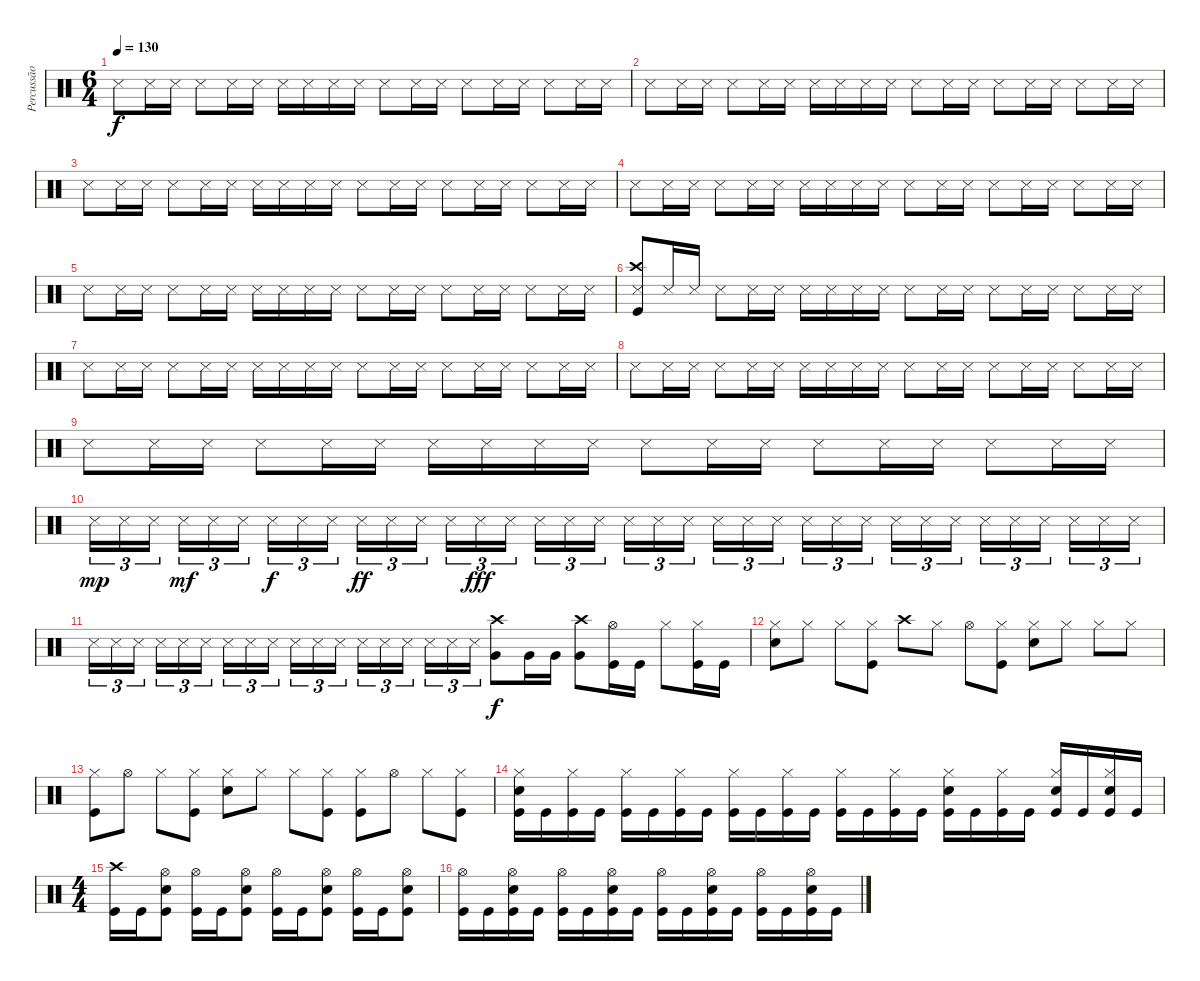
\track ("Percussão" "Percussão") {instrument percussion}
\staff {score}
\articulation defaults
\ts (6 4)
\tempo 130
\clef neutral
\ks c "Snare (side stick) 3".8{dy f} "Snare (side stick) 3".16 "Snare (side stick) 3".16 "Snare (side stick) 3".8 "Snare (side stick) 3".16 "Snare (side stick) 3".16 "Snare (side stick) 3".16 "Snare (side stick) 3".16 "Snare (side stick) 3".16 "Snare (side stick) 3".16 "Snare (side stick) 3".8 "Snare (side stick) 3".16 "Snare (side stick) 3".16 "Snare (side stick) 3".8 "Snare (side stick) 3".16 "Snare (side stick) 3".16 "Snare (side stick) 3".8 "Snare (side stick) 3".16 "Snare (side stick) 3".16
|
"Snare (side stick) 3".8 "Snare (side stick) 3".16 "Snare (side stick) 3".16 "Snare (side stick) 3".8 "Snare (side stick) 3".16 "Snare (side stick) 3".16 "Snare (side stick) 3".16 "Snare (side stick) 3".16 "Snare (side stick) 3".16 "Snare (side stick) 3".16 "Snare (side stick) 3".8 "Snare (side stick) 3".16 "Snare (side stick) 3".16 "Snare (side stick) 3".8 "Snare (side stick) 3".16 "Snare (side stick) 3".16 "Snare (side stick) 3".8 "Snare (side stick) 3".16 "Snare (side stick) 3".16 |
"Snare (side stick) 3".8 "Snare (side stick) 3".16 "Snare (side stick) 3".16 "Snare (side stick) 3".8 "Snare (side stick) 3".16 "Snare (side stick) 3".16 "Snare (side stick) 3".16 "Snare (side stick) 3".16 "Snare (side stick) 3".16 "Snare (side stick) 3".16 "Snare (side stick) 3".8 "Snare (side stick) 3".16 "Snare (side stick) 3".16 "Snare (side stick) 3".8 "Snare (side stick) 3".16 "Snare (side stick) 3".16 "Snare (side stick) 3".8 "Snare (side stick) 3".16 "Snare (side stick) 3".16 |
"Snare (side stick) 3".8 "Snare (side stick) 3".16 "Snare (side stick) 3".16 "Snare (side stick) 3".8 "Snare (side stick) 3".16 "Snare (side stick) 3".16 "Snare (side stick) 3".16 "Snare (side stick) 3".16 "Snare (side stick) 3".16 "Snare (side stick) 3".16 "Snare (side stick) 3".8 "Snare (side stick) 3".16 "Snare (side stick) 3".16 "Snare (side stick) 3".8 "Snare (side stick) 3".16 "Snare (side stick) 3".16 "Snare (side stick) 3".8 "Snare (side stick) 3".16 "Snare (side stick) 3".16 |
"Snare (side stick) 3".8 "Snare (side stick) 3".16 "Snare (side stick) 3".16 "Snare (side stick) 3".8 "Snare (side stick) 3".16 "Snare (side stick) 3".16 "Snare (side stick) 3".16 "Snare (side stick) 3".16 "Snare (side stick) 3".16 "Snare (side stick) 3".16 "Snare (side stick) 3".8 "Snare (side stick) 3".16 "Snare (side stick) 3".16 "Snare (side stick) 3".8 "Snare (side stick) 3".16 "Snare (side stick) 3".16 "Snare (side stick) 3".8 "Snare (side stick) 3".16 "Snare (side stick) 3".16 |
("Crash high (hit)" "Snare (side stick) 3" "Kick (hit)").8 "Snare (side stick) 3".16 "Snare (side stick) 3".16 "Snare (side stick) 3".8 "Snare (side stick) 3".16 "Snare (side stick) 3".16 "Snare (side stick) 3".16 "Snare (side stick) 3".16 "Snare (side stick) 3".16 "Snare (side stick) 3".16 "Snare (side stick) 3".8 "Snare (side stick) 3".16 "Snare (side stick) 3".16 "Snare (side stick) 3".8 "Snare (side stick) 3".16 "Snare (side stick) 3".16 "Snare (side stick) 3".8 "Snare (side stick) 3".16 "Snare (side stick) 3".16 |
"Snare (side stick) 3".8 "Snare (side stick) 3".16 "Snare (side stick) 3".16 "Snare (side stick) 3".8 "Snare (side stick) 3".16 "Snare (side stick) 3".16 "Snare (side stick) 3".16 "Snare (side stick) 3".16 "Snare (side stick) 3".16 "Snare (side stick) 3".16 "Snare (side stick) 3".8 "Snare (side stick) 3".16 "Snare (side stick) 3".16 "Snare (side stick) 3".8 "Snare (side stick) 3".16 "Snare (side stick) 3".16 "Snare (side stick) 3".8 "Snare (side stick) 3".16 "Snare (side stick) 3".16 |
"Snare (side stick) 3".8 "Snare (side stick) 3".16 "Snare (side stick) 3".16 "Snare (side stick) 3".8 "Snare (side stick) 3".16 "Snare (side stick) 3".16 "Snare (side stick) 3".16 "Snare (side stick) 3".16 "Snare (side stick) 3".16 "Snare (side stick) 3".16 "Snare (side stick) 3".8 "Snare (side stick) 3".16 "Snare (side stick) 3".16 "Snare (side stick) 3".8 "Snare (side stick) 3".16 "Snare (side stick) 3".16 "Snare (side stick) 3".8 "Snare (side stick) 3".16 "Snare (side stick) 3".16 |
"Snare (side stick) 3".8 "Snare (side stick) 3".16 "Snare (side stick) 3".16 "Snare (side stick) 3".8 "Snare (side stick) 3".16 "Snare (side stick) 3".16 "Snare (side stick) 3".16 "Snare (side stick) 3".16 "Snare (side stick) 3".16 "Snare (side stick) 3".16 "Snare (side stick) 3".8 "Snare (side stick) 3".16 "Snare (side stick) 3".16 "Snare (side stick) 3".8 "Snare (side stick) 3".16 "Snare (side stick) 3".16 "Snare (side stick) 3".8 "Snare (side stick) 3".16 "Snare (side stick) 3".16 |
"Snare (side stick) 3".16{tu (3 2) dy mp} "Snare (side stick) 3".16{tu (3 2)} "Snare (side stick) 3".16{tu (3 2)} "Snare (side stick) 3".16{tu (3 2) dy mf} "Snare (side stick) 3".16{tu (3 2)} "Snare (side stick) 3".16{tu (3 2)} "Snare (side stick) 3".16{tu (3 2) dy f} "Snare (side stick) 3".16{tu (3 2)} "Snare (side stick) 3".16{tu (3 2)} "Snare (side stick) 3".16{tu (3 2) dy ff} "Snare (side stick) 3".16{tu (3 2)} "Snare (side stick) 3".16{tu (3 2)} "Snare (side stick) 3".16{tu (3 2)} "Snare (side stick) 3".16{tu (3 2) dy fff} "Snare (side stick) 3".16{tu (3 2)} "Snare (side stick) 3".16{tu (3 2)} "Snare (side stick) 3".16{tu (3 2)} "Snare (side stick) 3".16{tu (3 2)} "Snare (side stick) 3".16{tu (3 2)} "Snare (side stick) 3".16{tu (3 2)} "Snare (side stick) 3".16{tu (3 2)} "Snare (side stick) 3".16{tu (3 2)} "Snare (side stick) 3".16{tu (3 2)} "Snare (side stick) 3".16{tu (3 2)} "Snare (side stick) 3".16{tu (3 2)} "Snare (side stick) 3".16{tu (3 2)} "Snare (side stick) 3".16{tu (3 2)} "Snare (side stick) 3".16{tu (3 2)} "Snare (side stick) 3".16{tu (3 2)} "Snare (side stick) 3".16{tu (3 2)} "Snare (side stick) 3".16{tu (3 2)} "Snare (side stick) 3".16{tu (3 2)} "Snare (side stick) 3".16{tu (3 2)} "Snare (side stick) 3".16{tu (3 2)} "Snare (side stick) 3".16{tu (3 2)} "Snare (side stick) 3".16{tu (3 2)} |
"Snare (side stick) 3".16{tu (3 2)} "Snare (side stick) 3".16{tu (3 2)} "Snare (side stick) 3".16{tu (3 2)} "Snare (side stick) 3".16{tu (3 2)} "Snare (side stick) 3".16{tu (3 2)} "Snare (side stick) 3".16{tu (3 2)} "Snare (side stick) 3".16{tu (3 2)} "Snare (side stick) 3".16{tu (3 2)} "Snare (side stick) 3".16{tu (3 2)} "Snare (side stick) 3".16{tu (3 2)} "Snare (side stick) 3".16{tu (3 2)} "Snare (side stick) 3".16{tu (3 2)} "Snare (side stick) 3".16{tu (3 2)} "Snare (side stick) 3".16{tu (3 2)} "Snare (side stick) 3".16{tu (3 2)} "Snare (side stick) 3".16{tu (3 2)} "Snare (side stick) 3".16{tu (3 2)} "Snare (side stick) 3".16{tu (3 2)} ("Crash high (hit)" "Very Low Tom (hit)").8{dy f} "Very Low Tom (hit)".16 "Very Low Tom (hit)".16 ("Crash high (hit)" "Very Low Tom (hit)").8 ("Hi-Hat (open)" "Kick (hit)").16 "Kick (hit)".16 "Hi-Hat (closed)".8 ("Hi-Hat (closed)" "Kick (hit)").16 "Kick (hit)".16 |
("Hi-Hat (closed)" "Snare (hit) 2").8 "Hi-Hat (closed)".8 "Hi-Hat (closed)".8 ("Hi-Hat (closed)" "Kick (hit)").8 "Crash high (hit)".8 "Hi-Hat (closed)".8 "Hi-Hat (open)".8 ("Hi-Hat (closed)" "Kick (hit)").8 ("Hi-Hat (closed)" "Snare (hit) 2").8 "Hi-Hat (closed)".8 "Hi-Hat (closed)".8 "Hi-Hat (closed)".8 |
("Hi-Hat (closed)" "Kick (hit)").8 "Hi-Hat (open)".8 "Hi-Hat (closed)".8 ("Hi-Hat (closed)" "Kick (hit)").8 ("Hi-Hat (closed)" "Snare (hit) 2").8 "Hi-Hat (closed)".8 "Hi-Hat (closed)".8 ("Hi-Hat (closed)" "Kick (hit)").8 ("Hi-Hat (closed)" "Kick (hit)").8 "Hi-Hat (open)".8 "Hi-Hat (closed)".8 ("Hi-Hat (closed)" "Kick (hit)").8 |
("Hi-Hat (closed)" "Snare (hit) 2" "Kick (hit)").16 "Kick (hit)".16 ("Hi-Hat (closed)" "Kick (hit)").16 "Kick (hit)".16 ("Hi-Hat (closed)" "Kick (hit)").16 "Kick (hit)".16 ("Hi-Hat (closed)" "Kick (hit)").16 "Kick (hit)".16 ("Hi-Hat (closed)" "Kick (hit)").16 "Kick (hit)".16 ("Hi-Hat (closed)" "Kick (hit)").16 "Kick (hit)".16 ("Hi-Hat (closed)" "Kick (hit)").16 "Kick (hit)".16 ("Hi-Hat (closed)" "Kick (hit)").16 "Kick (hit)".16 ("Hi-Hat (closed)" "Snare (hit) 2" "Kick (hit)").16 "Kick (hit)".16 ("Hi-Hat (closed)" "Kick (hit)").16 "Kick (hit)".16 ("Hi-Hat (closed)" "Snare (hit) 2" "Kick (hit)").16 "Kick (hit)".16 ("Hi-Hat (closed)" "Snare (hit) 2" "Kick (hit)").16 "Kick (hit)".16 |
\ts (4 4)
("Crash high (hit)" "Kick (hit)").16 "Kick (hit)".16 ("Hi-Hat (open)" "Snare (hit) 2" "Kick (hit)").8 ("Hi-Hat (open)" "Kick (hit)").16 "Kick (hit)".16 ("Hi-Hat (open)" "Snare (hit) 2" "Kick (hit)").8 ("Hi-Hat (open)" "Kick (hit)").16 "Kick (hit)".16 ("Hi-Hat (open)" "Snare (hit) 2" "Kick (hit)").8 ("Hi-Hat (open)" "Kick (hit)").16 "Kick (hit)".16 ("Hi-Hat (open)" "Snare (hit) 2" "Kick (hit)").8 |
("Hi-Hat (open)" "Kick (hit)").16 "Kick (hit)".16 ("Hi-Hat (open)" "Snare (hit) 2" "Kick (hit)").16 "Kick (hit)".16 ("Hi-Hat (open)" "Kick (hit)").16 "Kick (hit)".16 ("Hi-Hat (open)" "Snare (hit) 2" "Kick (hit)").16 "Kick (hit)".16 ("Hi-Hat (open)" "Kick (hit)").16 "Kick (hit)".16 ("Hi-Hat (open)" "Snare (hit) 2" "Kick (hit)").16 "Kick (hit)".16 ("Hi-Hat (open)" "Kick (hit)").16 "Kick (hit)".16 ("Hi-Hat (open)" "Snare (hit) 2" "Kick (hit)").16 "Kick (hit)".16
